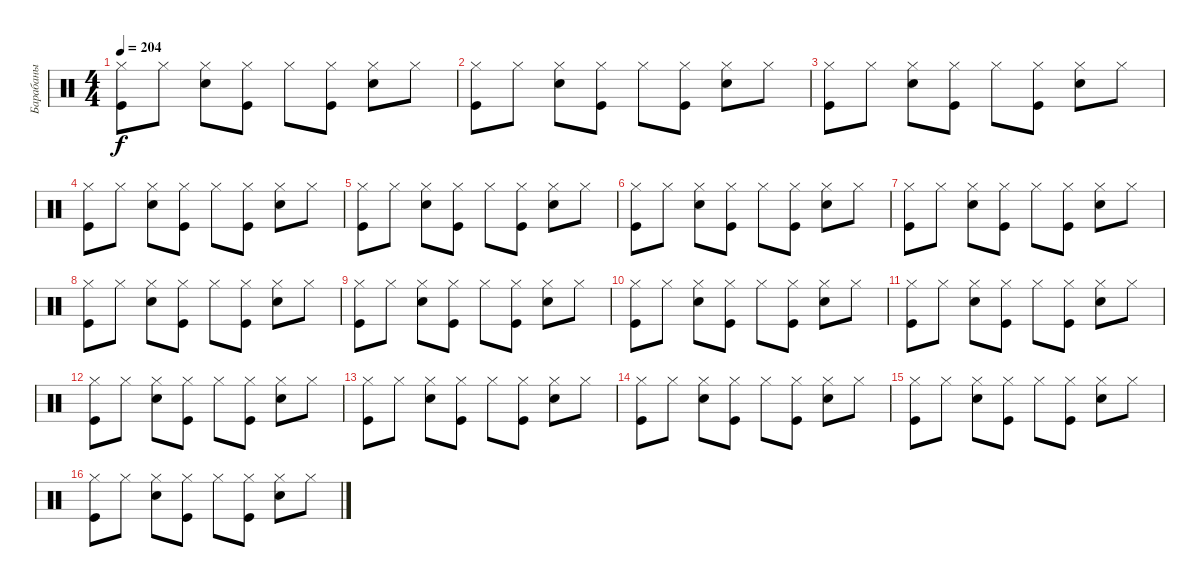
\track ("Барабаны" "Барабаны") {instrument percussion}
\staff {score}
\articulation defaults
\ts (4 4)
\tempo 204
\clef neutral
\ks c
("Kick (hit)" "Hi-Hat (closed)").8{dy f} "Hi-Hat (closed)".8 ("Snare (hit) 2" "Hi-Hat (closed)").8 ("Kick (hit)" "Hi-Hat (closed)").8 "Hi-Hat (closed)".8 ("Kick (hit)" "Hi-Hat (closed)").8 ("Snare (hit) 2" "Hi-Hat (closed)").8 "Hi-Hat (closed)".8 |
("Kick (hit)" "Hi-Hat (closed)").8 "Hi-Hat (closed)".8 ("Snare (hit) 2" "Hi-Hat (closed)").8 ("Kick (hit)" "Hi-Hat (closed)").8 "Hi-Hat (closed)".8 ("Kick (hit)" "Hi-Hat (closed)").8 ("Snare (hit) 2" "Hi-Hat (closed)").8 "Hi-Hat (closed)".8 |
("Kick (hit)" "Hi-Hat (closed)").8 "Hi-Hat (closed)".8 ("Snare (hit) 2" "Hi-Hat (closed)").8 ("Kick (hit)" "Hi-Hat (closed)").8 "Hi-Hat (closed)".8 ("Kick (hit)" "Hi-Hat (closed)").8 ("Snare (hit) 2" "Hi-Hat (closed)").8 "Hi-Hat (closed)".8 |
("Kick (hit)" "Hi-Hat (closed)").8 "Hi-Hat (closed)".8 ("Snare (hit) 2" "Hi-Hat (closed)").8 ("Kick (hit)" "Hi-Hat (closed)").8 "Hi-Hat (closed)".8 ("Kick (hit)" "Hi-Hat (closed)").8 ("Snare (hit) 2" "Hi-Hat (closed)").8 "Hi-Hat (closed)".8 |
("Kick (hit)" "Hi-Hat (closed)").8 "Hi-Hat (closed)".8 ("Snare (hit) 2" "Hi-Hat (closed)").8 ("Kick (hit)" "Hi-Hat (closed)").8 "Hi-Hat (closed)".8 ("Kick (hit)" "Hi-Hat (closed)").8 ("Snare (hit) 2" "Hi-Hat (closed)").8 "Hi-Hat (closed)".8 |
("Kick (hit)" "Hi-Hat (closed)").8 "Hi-Hat (closed)".8 ("Snare (hit) 2" "Hi-Hat (closed)").8 ("Kick (hit)" "Hi-Hat (closed)").8 "Hi-Hat (closed)".8 ("Kick (hit)" "Hi-Hat (closed)").8 ("Snare (hit) 2" "Hi-Hat (closed)").8 "Hi-Hat (closed)".8 |
("Kick (hit)" "Hi-Hat (closed)").8 "Hi-Hat (closed)".8 ("Snare (hit) 2" "Hi-Hat (closed)").8 ("Kick (hit)" "Hi-Hat (closed)").8 "Hi-Hat (closed)".8 ("Kick (hit)" "Hi-Hat (closed)").8 ("Snare (hit) 2" "Hi-Hat (closed)").8 "Hi-Hat (closed)".8 |
("Kick (hit)" "Hi-Hat (closed)").8 "Hi-Hat (closed)".8 ("Snare (hit) 2" "Hi-Hat (closed)").8 ("Kick (hit)" "Hi-Hat (closed)").8 "Hi-Hat (closed)".8 ("Kick (hit)" "Hi-Hat (closed)").8 ("Snare (hit) 2" "Hi-Hat (closed)").8 "Hi-Hat (closed)".8 |
("Kick (hit)" "Hi-Hat (closed)").8 "Hi-Hat (closed)".8 ("Snare (hit) 2" "Hi-Hat (closed)").8 ("Kick (hit)" "Hi-Hat (closed)").8 "Hi-Hat (closed)".8 ("Kick (hit)" "Hi-Hat (closed)").8 ("Snare (hit) 2" "Hi-Hat (closed)").8 "Hi-Hat (closed)".8 |
("Kick (hit)" "Hi-Hat (closed)").8 "Hi-Hat (closed)".8 ("Snare (hit) 2" "Hi-Hat (closed)").8 ("Kick (hit)" "Hi-Hat (closed)").8 "Hi-Hat (closed)".8 ("Kick (hit)" "Hi-Hat (closed)").8 ("Snare (hit) 2" "Hi-Hat (closed)").8 "Hi-Hat (closed)".8 |
("Kick (hit)" "Hi-Hat (closed)").8 "Hi-Hat (closed)".8 ("Snare (hit) 2" "Hi-Hat (closed)").8 ("Kick (hit)" "Hi-Hat (closed)").8 "Hi-Hat (closed)".8 ("Kick (hit)" "Hi-Hat (closed)").8 ("Snare (hit) 2" "Hi-Hat (closed)").8 "Hi-Hat (closed)".8 |
("Kick (hit)" "Hi-Hat (closed)").8 "Hi-Hat (closed)".8 ("Snare (hit) 2" "Hi-Hat (closed)").8 ("Kick (hit)" "Hi-Hat (closed)").8 "Hi-Hat (closed)".8 ("Kick (hit)" "Hi-Hat (closed)").8 ("Snare (hit) 2" "Hi-Hat (closed)").8 "Hi-Hat (closed)".8 |
("Kick (hit)" "Hi-Hat (closed)").8 "Hi-Hat (closed)".8 ("Snare (hit) 2" "Hi-Hat (closed)").8 ("Kick (hit)" "Hi-Hat (closed)").8 "Hi-Hat (closed)".8 ("Kick (hit)" "Hi-Hat (closed)").8 ("Snare (hit) 2" "Hi-Hat (closed)").8 "Hi-Hat (closed)".8 |
("Kick (hit)" "Hi-Hat (closed)").8 "Hi-Hat (closed)".8 ("Snare (hit) 2" "Hi-Hat (closed)").8 ("Kick (hit)" "Hi-Hat (closed)").8 "Hi-Hat (closed)".8 ("Kick (hit)" "Hi-Hat (closed)").8 ("Snare (hit) 2" "Hi-Hat (closed)").8 "Hi-Hat (closed)".8 |
("Kick (hit)" "Hi-Hat (closed)").8 "Hi-Hat (closed)".8 ("Snare (hit) 2" "Hi-Hat (closed)").8 ("Kick (hit)" "Hi-Hat (closed)").8 "Hi-Hat (closed)".8 ("Kick (hit)" "Hi-Hat (closed)").8 ("Snare (hit) 2" "Hi-Hat (closed)").8 "Hi-Hat (closed)".8 |
("Kick (hit)" "Hi-Hat (closed)").8 "Hi-Hat (closed)".8 ("Snare (hit) 2" "Hi-Hat (closed)").8 ("Kick (hit)" "Hi-Hat (closed)").8 "Hi-Hat (closed)".8 ("Kick (hit)" "Hi-Hat (closed)").8 ("Snare (hit) 2" "Hi-Hat (closed)").8 "Hi-Hat (closed)".8
